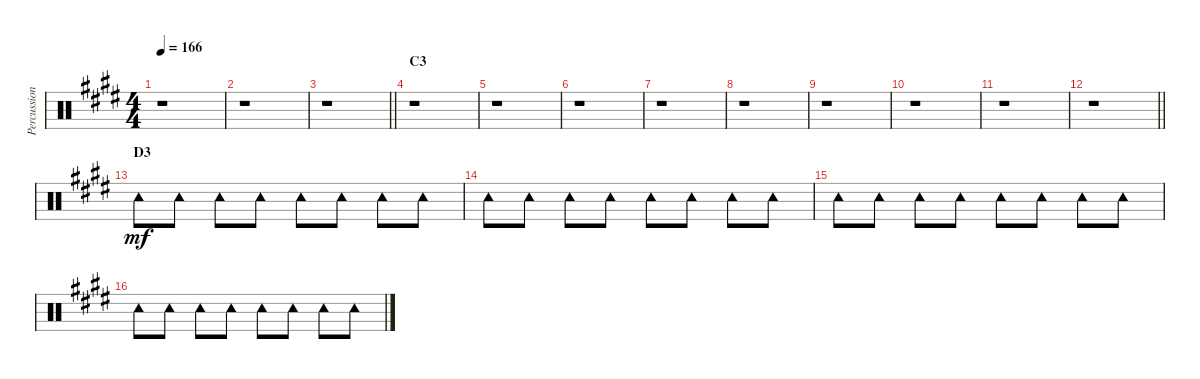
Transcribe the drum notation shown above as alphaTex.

\track ("Percussion" "Percussion") {instrument percussion}
\staff {score}
\articulation defaults
\ts (4 4)
\tempo 166
\clef neutral
\ks e
r.1{dy mf} |
r.1 |
\barLineRight lightlight
r.1 |
\section ("" "C3")
r.1 |
r.1 |
r.1 |
r.1 |
r.1 |
r.1 |
r.1 |
r.1 |
\barLineRight lightlight
r.1 |
\section ("" "D3")
"Tambourine (hit)".8 "Tambourine (hit)".8 "Tambourine (hit)".8 "Tambourine (hit)".8 "Tambourine (hit)".8 "Tambourine (hit)".8 "Tambourine (hit)".8 "Tambourine (hit)".8 |
"Tambourine (hit)".8 "Tambourine (hit)".8 "Tambourine (hit)".8 "Tambourine (hit)".8 "Tambourine (hit)".8 "Tambourine (hit)".8 "Tambourine (hit)".8 "Tambourine (hit)".8 |
"Tambourine (hit)".8 "Tambourine (hit)".8 "Tambourine (hit)".8 "Tambourine (hit)".8 "Tambourine (hit)".8 "Tambourine (hit)".8 "Tambourine (hit)".8 "Tambourine (hit)".8 |
"Tambourine (hit)".8 "Tambourine (hit)".8 "Tambourine (hit)".8 "Tambourine (hit)".8 "Tambourine (hit)".8 "Tambourine (hit)".8 "Tambourine (hit)".8 "Tambourine (hit)".8
